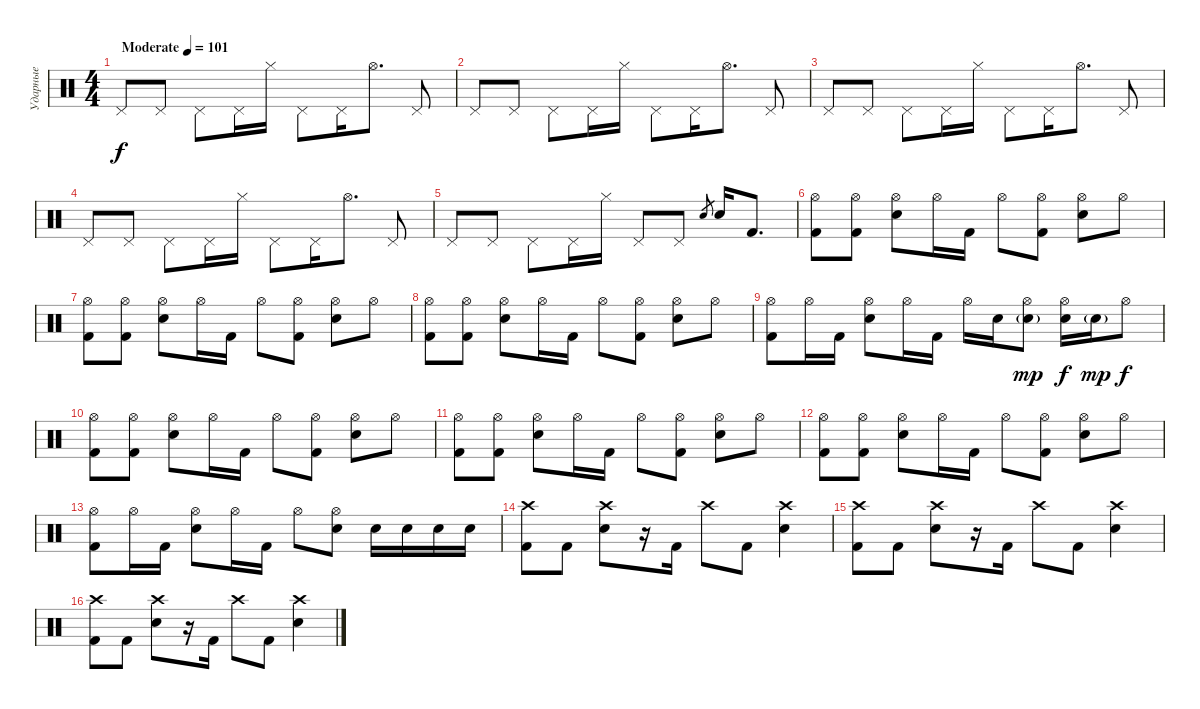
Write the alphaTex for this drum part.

\track ("Ударные" "Ударные") {instrument percussion}
\staff {score}
\articulation defaults
\ts (4 4)
\tempo (101 "Moderate")
\clef neutral
\ks c "Pedal Hi-Hat (hit)".8{dy f} "Pedal Hi-Hat (hit)".8 "Pedal Hi-Hat (hit)".8 "Pedal Hi-Hat (hit)".16 "Hi-Hat (closed)".16 "Pedal Hi-Hat (hit)".8 "Pedal Hi-Hat (hit)".16 "Hi-Hat (open)".8{d} "Pedal Hi-Hat (hit)".8
|
"Pedal Hi-Hat (hit)".8 "Pedal Hi-Hat (hit)".8 "Pedal Hi-Hat (hit)".8 "Pedal Hi-Hat (hit)".16 "Hi-Hat (closed)".16 "Pedal Hi-Hat (hit)".8 "Pedal Hi-Hat (hit)".16 "Hi-Hat (open)".8{d} "Pedal Hi-Hat (hit)".8 |
"Pedal Hi-Hat (hit)".8 "Pedal Hi-Hat (hit)".8 "Pedal Hi-Hat (hit)".8 "Pedal Hi-Hat (hit)".16 "Hi-Hat (closed)".16 "Pedal Hi-Hat (hit)".8 "Pedal Hi-Hat (hit)".16 "Hi-Hat (open)".8{d} "Pedal Hi-Hat (hit)".8 |
"Pedal Hi-Hat (hit)".8 "Pedal Hi-Hat (hit)".8 "Pedal Hi-Hat (hit)".8 "Pedal Hi-Hat (hit)".16 "Hi-Hat (closed)".16 "Pedal Hi-Hat (hit)".8 "Pedal Hi-Hat (hit)".16 "Hi-Hat (open)".8{d} "Pedal Hi-Hat (hit)".8 |
"Pedal Hi-Hat (hit)".8 "Pedal Hi-Hat (hit)".8 "Pedal Hi-Hat (hit)".8 "Pedal Hi-Hat (hit)".16 "Hi-Hat (closed)".16 "Pedal Hi-Hat (hit)".8 "Pedal Hi-Hat (hit)".8 "Snare (hit) 2".8{gr} "Snare (hit) 2".16 "Kick (hit) 2".8{d} |
("Hi-Hat (open)" "Kick (hit) 2").8 ("Hi-Hat (open)" "Kick (hit) 2").8 ("Hi-Hat (open)" "Snare (hit) 2").8 "Hi-Hat (open)".16 "Kick (hit) 2".16 "Hi-Hat (open)".8 ("Hi-Hat (open)" "Kick (hit) 2").8 ("Hi-Hat (open)" "Snare (hit) 2").8 "Hi-Hat (open)".8 |
("Hi-Hat (open)" "Kick (hit) 2").8 ("Hi-Hat (open)" "Kick (hit) 2").8 ("Hi-Hat (open)" "Snare (hit) 2").8 "Hi-Hat (open)".16 "Kick (hit) 2".16 "Hi-Hat (open)".8 ("Hi-Hat (open)" "Kick (hit) 2").8 ("Hi-Hat (open)" "Snare (hit) 2").8 "Hi-Hat (open)".8 |
("Hi-Hat (open)" "Kick (hit) 2").8 ("Hi-Hat (open)" "Kick (hit) 2").8 ("Hi-Hat (open)" "Snare (hit) 2").8 "Hi-Hat (open)".16 "Kick (hit) 2".16 "Hi-Hat (open)".8 ("Hi-Hat (open)" "Kick (hit) 2").8 ("Hi-Hat (open)" "Snare (hit) 2").8 "Hi-Hat (open)".8 |
("Hi-Hat (open)" "Kick (hit) 2").8 "Hi-Hat (open)".16 "Kick (hit) 2".16 ("Hi-Hat (open)" "Snare (hit) 2").8 "Hi-Hat (open)".16 "Kick (hit) 2".16 "Hi-Hat (open)".16 "Snare (hit) 2".16 ("Hi-Hat (open)" "Snare (hit) 2"{g}).8{dy mp} ("Hi-Hat (open)" "Snare (hit) 2").16{dy f} "Snare (hit) 2"{g}.16{dy mp} "Hi-Hat (open)".8{dy f} |
("Hi-Hat (open)" "Kick (hit) 2").8 ("Hi-Hat (open)" "Kick (hit) 2").8 ("Hi-Hat (open)" "Snare (hit) 2").8 "Hi-Hat (open)".16 "Kick (hit) 2".16 "Hi-Hat (open)".8 ("Hi-Hat (open)" "Kick (hit) 2").8 ("Hi-Hat (open)" "Snare (hit) 2").8 "Hi-Hat (open)".8 |
("Hi-Hat (open)" "Kick (hit) 2").8 ("Hi-Hat (open)" "Kick (hit) 2").8 ("Hi-Hat (open)" "Snare (hit) 2").8 "Hi-Hat (open)".16 "Kick (hit) 2".16 "Hi-Hat (open)".8 ("Hi-Hat (open)" "Kick (hit) 2").8 ("Hi-Hat (open)" "Snare (hit) 2").8 "Hi-Hat (open)".8 |
("Hi-Hat (open)" "Kick (hit) 2").8 ("Hi-Hat (open)" "Kick (hit) 2").8 ("Hi-Hat (open)" "Snare (hit) 2").8 "Hi-Hat (open)".16 "Kick (hit) 2".16 "Hi-Hat (open)".8 ("Hi-Hat (open)" "Kick (hit) 2").8 ("Hi-Hat (open)" "Snare (hit) 2").8 "Hi-Hat (open)".8 |
("Hi-Hat (open)" "Kick (hit) 2").8 "Hi-Hat (open)".16 "Kick (hit) 2".16 ("Hi-Hat (open)" "Snare (hit) 2").8 "Hi-Hat (open)".16 "Kick (hit) 2".16 "Hi-Hat (open)".8 ("Hi-Hat (open)" "Snare (hit) 2").8 "Snare (hit) 2".16 "Snare (hit) 2".16 "Snare (hit) 2".16 "Snare (hit) 2".16 |
("Crash high (hit)" "Kick (hit) 2").8 "Kick (hit) 2".8 ("Crash high (hit)" "Snare (hit) 2").8 r.16 "Kick (hit) 2".16 "Crash high (hit)".8 "Kick (hit) 2".8 ("Crash high (hit)" "Snare (hit) 2").4 |
("Crash high (hit)" "Kick (hit) 2").8 "Kick (hit) 2".8 ("Crash high (hit)" "Snare (hit) 2").8 r.16 "Kick (hit) 2".16 "Crash high (hit)".8 "Kick (hit) 2".8 ("Crash high (hit)" "Snare (hit) 2").4 |
("Crash high (hit)" "Kick (hit) 2").8 "Kick (hit) 2".8 ("Crash high (hit)" "Snare (hit) 2").8 r.16 "Kick (hit) 2".16 "Crash high (hit)".8 "Kick (hit) 2".8 ("Crash high (hit)" "Snare (hit) 2").4
